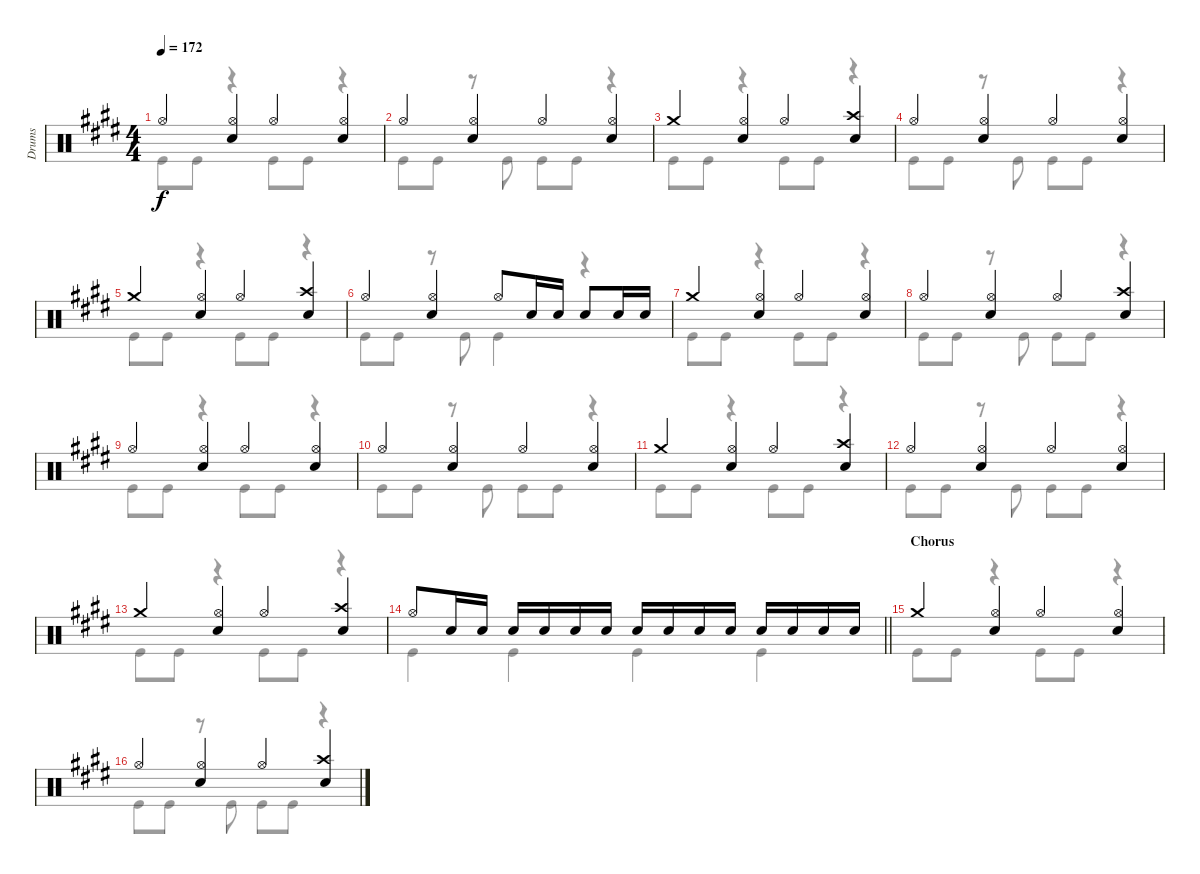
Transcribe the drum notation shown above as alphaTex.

\track ("Drums" "Drums") {instrument percussion}
\staff {score}
\articulation defaults
\voice
\ts (4 4)
\tempo 172
\clef neutral
\ks e "Hi-Hat (open)".4{dy f}
("Hi-Hat (open)" "Electric Snare (hit)").4 "Hi-Hat (open)".4 ("Hi-Hat (open)" "Electric Snare (hit)").4 |
"Hi-Hat (open)".4 ("Hi-Hat (open)" "Electric Snare (hit)").4 "Hi-Hat (open)".4 ("Hi-Hat (open)" "Electric Snare (hit)").4 |
"Crash medium (hit)".4 ("Hi-Hat (open)" "Electric Snare (hit)").4 "Hi-Hat (open)".4 ("Crash high (hit)" "Electric Snare (hit)").4 |
"Hi-Hat (open)".4 ("Hi-Hat (open)" "Electric Snare (hit)").4 "Hi-Hat (open)".4 ("Hi-Hat (open)" "Electric Snare (hit)").4 |
"Crash medium (hit)".4 ("Hi-Hat (open)" "Electric Snare (hit)").4 "Hi-Hat (open)".4 ("Crash high (hit)" "Electric Snare (hit)").4 |
"Hi-Hat (open)".4 ("Hi-Hat (open)" "Electric Snare (hit)").4 "Hi-Hat (open)".8 "Electric Snare (hit)".16 "Electric Snare (hit)".16 "Electric Snare (hit)".8 "Electric Snare (hit)".16 "Electric Snare (hit)".16 |
"Crash medium (hit)".4 ("Hi-Hat (open)" "Electric Snare (hit)").4 "Hi-Hat (open)".4 ("Hi-Hat (open)" "Electric Snare (hit)").4 |
"Hi-Hat (open)".4 ("Hi-Hat (open)" "Electric Snare (hit)").4 "Hi-Hat (open)".4 ("Crash high (hit)" "Electric Snare (hit)").4 |
"Hi-Hat (open)".4 ("Hi-Hat (open)" "Electric Snare (hit)").4 "Hi-Hat (open)".4 ("Hi-Hat (open)" "Electric Snare (hit)").4 |
"Hi-Hat (open)".4 ("Hi-Hat (open)" "Electric Snare (hit)").4 "Hi-Hat (open)".4 ("Hi-Hat (open)" "Electric Snare (hit)").4 |
"Crash medium (hit)".4 ("Hi-Hat (open)" "Electric Snare (hit)").4 "Hi-Hat (open)".4 ("Crash high (hit)" "Electric Snare (hit)").4 |
"Hi-Hat (open)".4 ("Hi-Hat (open)" "Electric Snare (hit)").4 "Hi-Hat (open)".4 ("Hi-Hat (open)" "Electric Snare (hit)").4 |
"Crash medium (hit)".4 ("Hi-Hat (open)" "Electric Snare (hit)").4 "Hi-Hat (open)".4 ("Crash high (hit)" "Electric Snare (hit)").4 |
\barLineRight lightlight "Hi-Hat (open)".8 "Electric Snare (hit)".16 "Electric Snare (hit)".16 "Electric Snare (hit)".16 "Electric Snare (hit)".16 "Electric Snare (hit)".16 "Electric Snare (hit)".16 "Electric Snare (hit)".16 "Electric Snare (hit)".16 "Electric Snare (hit)".16 "Electric Snare (hit)".16 "Electric Snare (hit)".16 "Electric Snare (hit)".16 "Electric Snare (hit)".16 "Electric Snare (hit)".16
|
\section ("" "Chorus")
"Crash medium (hit)".4 ("Hi-Hat (open)" "Electric Snare (hit)").4 "Hi-Hat (open)".4 ("Hi-Hat (open)" "Electric Snare (hit)").4 |
"Hi-Hat (open)".4 ("Hi-Hat (open)" "Electric Snare (hit)").4 "Hi-Hat (open)".4 ("Crash high (hit)" "Electric Snare (hit)").4
\voice
\clef neutral
\ottava regular
\simile none
\ks e "Kick (hit)".8{dy f} "Kick (hit)".8
r.4 "Kick (hit)".8 "Kick (hit)".8 r.4 |
"Kick (hit)".8 "Kick (hit)".8 r.8 "Kick (hit)".8 "Kick (hit)".8 "Kick (hit)".8 r.4 |
"Kick (hit)".8 "Kick (hit)".8 r.4 "Kick (hit)".8 "Kick (hit)".8 r.4 |
"Kick (hit)".8 "Kick (hit)".8 r.8 "Kick (hit)".8 "Kick (hit)".8 "Kick (hit)".8 r.4 |
"Kick (hit)".8 "Kick (hit)".8 r.4 "Kick (hit)".8 "Kick (hit)".8 r.4 |
"Kick (hit)".8 "Kick (hit)".8 r.8 "Kick (hit)".8 "Kick (hit)".4 r.4 |
"Kick (hit)".8 "Kick (hit)".8 r.4 "Kick (hit)".8 "Kick (hit)".8 r.4 |
"Kick (hit)".8 "Kick (hit)".8 r.8 "Kick (hit)".8 "Kick (hit)".8 "Kick (hit)".8 r.4 |
"Kick (hit)".8 "Kick (hit)".8 r.4 "Kick (hit)".8 "Kick (hit)".8 r.4 |
"Kick (hit)".8 "Kick (hit)".8 r.8 "Kick (hit)".8 "Kick (hit)".8 "Kick (hit)".8 r.4 |
"Kick (hit)".8 "Kick (hit)".8 r.4 "Kick (hit)".8 "Kick (hit)".8 r.4 |
"Kick (hit)".8 "Kick (hit)".8 r.8 "Kick (hit)".8 "Kick (hit)".8 "Kick (hit)".8 r.4 |
"Kick (hit)".8 "Kick (hit)".8 r.4 "Kick (hit)".8 "Kick (hit)".8 r.4 |
\barLineRight lightlight "Kick (hit)".4 "Kick (hit)".4 "Kick (hit)".4 "Kick (hit)".4
|
"Kick (hit)".8 "Kick (hit)".8 r.4 "Kick (hit)".8 "Kick (hit)".8 r.4 |
"Kick (hit)".8 "Kick (hit)".8 r.8 "Kick (hit)".8 "Kick (hit)".8 "Kick (hit)".8 r.4
